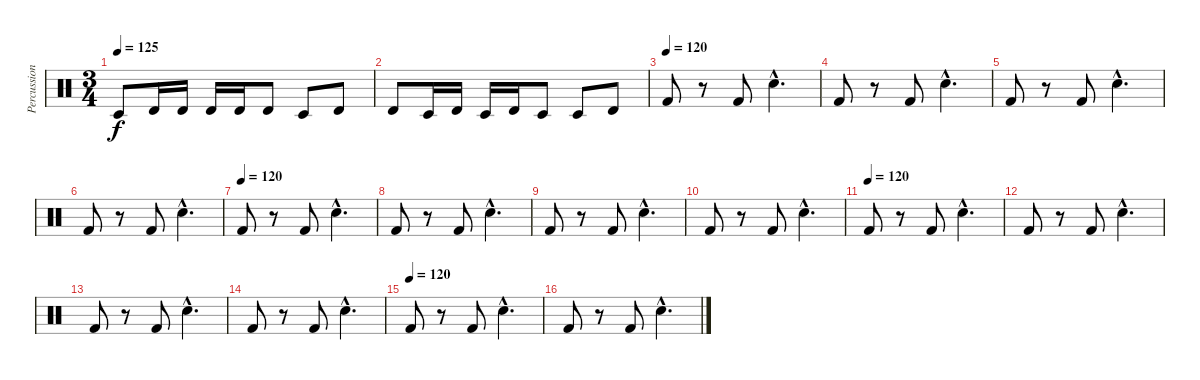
\track ("Percussion" "Percussion") {instrument percussion}
\staff {score}
\articulation defaults
\ts (3 4)
\tempo 125
\clef neutral
\ks c "Timbale low (hit)"{nh}.8{dy f} "Timbale high (hit)"{nh}.16 "Timbale high (hit)"{nh}.16 "Timbale high (hit)"{nh}.16 "Timbale high (hit)"{nh}.16 "Timbale high (hit)"{nh}.8 "Timbale low (hit)"{nh}.8 "Timbale high (hit)"{nh}.8
|
"Timbale high (hit)"{nh}.8 "Timbale low (hit)"{nh}.16 "Timbale high (hit)"{nh}.16 "Timbale low (hit)"{nh}.16 "Timbale high (hit)"{nh}.16 "Timbale low (hit)"{nh}.8 "Timbale low (hit)"{nh}.8 "Timbale high (hit)"{nh}.8 |
\tempo (120)
"Kick (hit) 2".8{volume 16} r.8 "Kick (hit) 2".8 "Electric Snare (hit)"{hac}.4{d} |
"Kick (hit) 2".8 r.8 "Kick (hit) 2".8 "Electric Snare (hit)"{hac}.4{d} |
"Kick (hit) 2".8 r.8 "Kick (hit) 2".8 "Electric Snare (hit)"{hac}.4{d} |
"Kick (hit) 2".8 r.8 "Kick (hit) 2".8 "Electric Snare (hit)"{hac}.4{d} |
\tempo (120)
"Kick (hit) 2".8 r.8 "Kick (hit) 2".8 "Electric Snare (hit)"{hac}.4{d} |
"Kick (hit) 2".8 r.8 "Kick (hit) 2".8 "Electric Snare (hit)"{hac}.4{d} |
"Kick (hit) 2".8 r.8 "Kick (hit) 2".8 "Electric Snare (hit)"{hac}.4{d} |
"Kick (hit) 2".8 r.8 "Kick (hit) 2".8 "Electric Snare (hit)"{hac}.4{d} |
\tempo (120)
"Kick (hit) 2".8 r.8 "Kick (hit) 2".8 "Electric Snare (hit)"{hac}.4{d} |
"Kick (hit) 2".8 r.8 "Kick (hit) 2".8 "Electric Snare (hit)"{hac}.4{d} |
"Kick (hit) 2".8 r.8 "Kick (hit) 2".8 "Electric Snare (hit)"{hac}.4{d} |
"Kick (hit) 2".8 r.8 "Kick (hit) 2".8 "Electric Snare (hit)"{hac}.4{d} |
\tempo (120)
"Kick (hit) 2".8 r.8 "Kick (hit) 2".8 "Electric Snare (hit)"{hac}.4{d} |
"Kick (hit) 2".8 r.8 "Kick (hit) 2".8 "Electric Snare (hit)"{hac}.4{d}
